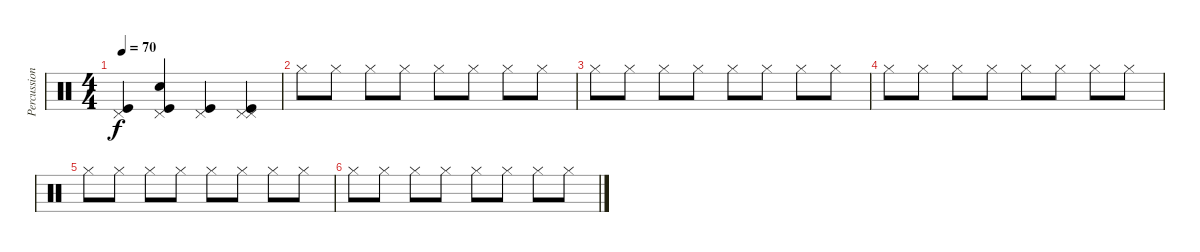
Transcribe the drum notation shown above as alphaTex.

\track ("Percussion" "Percussion") {instrument percussion}
\staff {score}
\articulation defaults
\ts (4 4)
\tempo 70
\clef neutral
\ks c
("Kick (hit)" "Pedal Hi-Hat (hit)").4{dy f} ("Kick (hit)" "Snare (hit) 2" "Pedal Hi-Hat (hit)").4 ("Kick (hit)" "Pedal Hi-Hat (hit)").4 ("Kick (hit)" "Pedal Hi-Hat (hit)" "Pedal Hi-Hat (hit)").4 |
"Hi-Hat (closed)".8 "Hi-Hat (closed)".8 "Hi-Hat (closed)".8 "Hi-Hat (closed)".8 "Hi-Hat (closed)".8 "Hi-Hat (closed)".8 "Hi-Hat (closed)".8 "Hi-Hat (closed)".8 |
"Hi-Hat (closed)".8 "Hi-Hat (closed)".8 "Hi-Hat (closed)".8 "Hi-Hat (closed)".8 "Hi-Hat (closed)".8 "Hi-Hat (closed)".8 "Hi-Hat (closed)".8 "Hi-Hat (closed)".8 |
"Hi-Hat (closed)".8 "Hi-Hat (closed)".8 "Hi-Hat (closed)".8 "Hi-Hat (closed)".8 "Hi-Hat (closed)".8 "Hi-Hat (closed)".8 "Hi-Hat (closed)".8 "Hi-Hat (closed)".8 |
"Hi-Hat (closed)".8 "Hi-Hat (closed)".8 "Hi-Hat (closed)".8 "Hi-Hat (closed)".8 "Hi-Hat (closed)".8 "Hi-Hat (closed)".8 "Hi-Hat (closed)".8 "Hi-Hat (closed)".8 |
"Hi-Hat (closed)".8 "Hi-Hat (closed)".8 "Hi-Hat (closed)".8 "Hi-Hat (closed)".8 "Hi-Hat (closed)".8 "Hi-Hat (closed)".8 "Hi-Hat (closed)".8 "Hi-Hat (closed)".8
